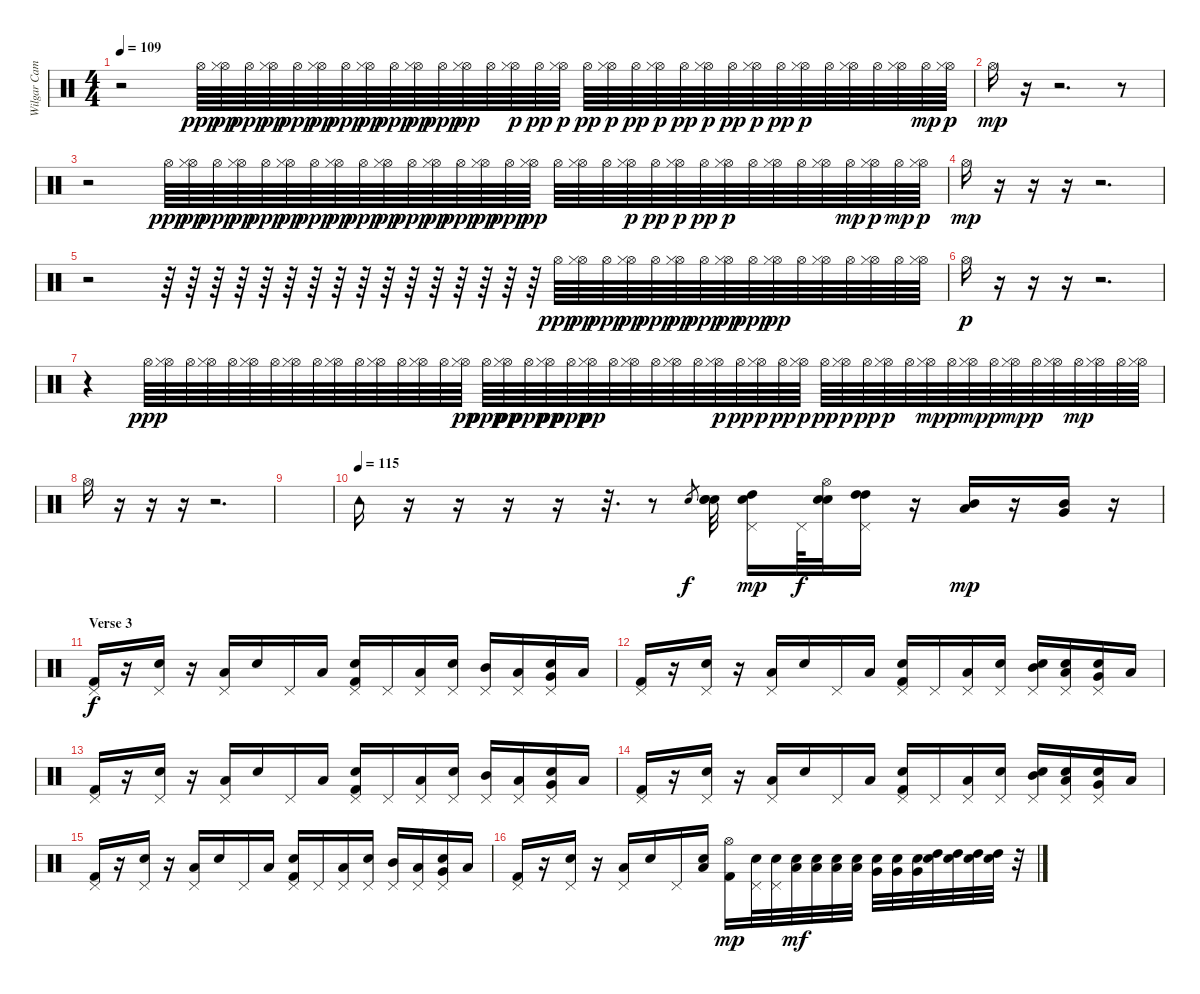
\track ("Wilgar Campbell" "Wilgar Cam") {instrument percussion}
\staff {score}
\articulation defaults
\ts (4 4)
\tempo 109
\clef neutral
\ks c
r.2{dy mf} "Hi-Hat (open)".64{dy ppp} ("Hi-Hat (open)" "Hi-Hat (closed)").64{dy pp} "Hi-Hat (open)".64{dy ppp} ("Hi-Hat (open)" "Hi-Hat (closed)").64{dy pp} "Hi-Hat (open)".64{dy ppp} ("Hi-Hat (open)" "Hi-Hat (closed)").64{dy pp} "Hi-Hat (open)".64{dy ppp} ("Hi-Hat (open)" "Hi-Hat (closed)").64{dy pp} "Hi-Hat (open)".64{dy ppp} ("Hi-Hat (open)" "Hi-Hat (closed)").64{dy pp} "Hi-Hat (open)".64{dy ppp} ("Hi-Hat (open)" "Hi-Hat (closed)").64{dy pp} "Hi-Hat (open)".64 ("Hi-Hat (open)" "Hi-Hat (closed)").64{dy p} "Hi-Hat (open)".64{dy pp} ("Hi-Hat (open)" "Hi-Hat (closed)").64{dy p} "Hi-Hat (open)".64{dy pp} ("Hi-Hat (open)" "Hi-Hat (closed)").64{dy p} "Hi-Hat (open)".64{dy pp} ("Hi-Hat (open)" "Hi-Hat (closed)").64{dy p} "Hi-Hat (open)".64{dy pp} ("Hi-Hat (open)" "Hi-Hat (closed)").64{dy p} "Hi-Hat (open)".64{dy pp} ("Hi-Hat (open)" "Hi-Hat (closed)").64{dy p} "Hi-Hat (open)".64{dy pp} ("Hi-Hat (open)" "Hi-Hat (closed)").64{dy p} "Hi-Hat (open)".64 ("Hi-Hat (open)" "Hi-Hat (closed)").64 "Hi-Hat (open)".64 ("Hi-Hat (open)" "Hi-Hat (closed)").64 "Hi-Hat (open)".64{dy mp} ("Hi-Hat (open)" "Hi-Hat (closed)").64{dy p} |
"Hi-Hat (open)".16{dy mp} r.16 r.2{d} r.8 |
r.2 "Hi-Hat (open)".64{dy ppp} ("Hi-Hat (open)" "Hi-Hat (closed)").64{dy pp} "Hi-Hat (open)".64{dy ppp} ("Hi-Hat (open)" "Hi-Hat (closed)").64{dy pp} "Hi-Hat (open)".64{dy ppp} ("Hi-Hat (open)" "Hi-Hat (closed)").64{dy pp} "Hi-Hat (open)".64{dy ppp} ("Hi-Hat (open)" "Hi-Hat (closed)").64{dy pp} "Hi-Hat (open)".64{dy ppp} ("Hi-Hat (open)" "Hi-Hat (closed)").64{dy pp} "Hi-Hat (open)".64{dy ppp} ("Hi-Hat (open)" "Hi-Hat (closed)").64{dy pp} "Hi-Hat (open)".64{dy ppp} ("Hi-Hat (open)" "Hi-Hat (closed)").64{dy pp} "Hi-Hat (open)".64{dy ppp} ("Hi-Hat (open)" "Hi-Hat (closed)").64{dy pp} "Hi-Hat (open)".64 ("Hi-Hat (open)" "Hi-Hat (closed)").64 "Hi-Hat (open)".64 ("Hi-Hat (open)" "Hi-Hat (closed)").64{dy p} "Hi-Hat (open)".64{dy pp} ("Hi-Hat (open)" "Hi-Hat (closed)").64{dy p} "Hi-Hat (open)".64{dy pp} ("Hi-Hat (open)" "Hi-Hat (closed)").64{dy p} "Hi-Hat (open)".64 ("Hi-Hat (open)" "Hi-Hat (closed)").64 "Hi-Hat (open)".64 ("Hi-Hat (open)" "Hi-Hat (closed)").64 "Hi-Hat (open)".64{dy mp} ("Hi-Hat (open)" "Hi-Hat (closed)").64{dy p} "Hi-Hat (open)".64{dy mp} ("Hi-Hat (open)" "Hi-Hat (closed)").64{dy p} |
"Hi-Hat (open)".16{dy mp} r.16 r.16 r.16 r.2{d} |
r.2 r.64 r.64 r.64 r.64 r.64 r.64 r.64 r.64 r.64 r.64 r.64 r.64 r.64 r.64 r.64 r.64 "Hi-Hat (open)".64{dy ppp} ("Hi-Hat (open)" "Hi-Hat (closed)").64{dy pp} "Hi-Hat (open)".64{dy ppp} ("Hi-Hat (open)" "Hi-Hat (closed)").64{dy pp} "Hi-Hat (open)".64{dy ppp} ("Hi-Hat (open)" "Hi-Hat (closed)").64{dy pp} "Hi-Hat (open)".64{dy ppp} ("Hi-Hat (open)" "Hi-Hat (closed)").64{dy pp} "Hi-Hat (open)".64{dy ppp} ("Hi-Hat (open)" "Hi-Hat (closed)").64{dy pp} "Hi-Hat (open)".64 ("Hi-Hat (open)" "Hi-Hat (closed)").64 "Hi-Hat (open)".64 ("Hi-Hat (open)" "Hi-Hat (closed)").64 "Hi-Hat (open)".64 ("Hi-Hat (open)" "Hi-Hat (closed)").64 |
"Hi-Hat (open)".16{dy p} r.16 r.16 r.16 r.2{d} |
r.4 "Hi-Hat (open)".64{dy ppp} ("Hi-Hat (open)" "Hi-Hat (closed)").64 "Hi-Hat (open)".64 ("Hi-Hat (open)" "Hi-Hat (closed)").64 "Hi-Hat (open)".64 ("Hi-Hat (open)" "Hi-Hat (closed)").64 "Hi-Hat (open)".64 ("Hi-Hat (open)" "Hi-Hat (closed)").64 "Hi-Hat (open)".64 ("Hi-Hat (open)" "Hi-Hat (closed)").64 "Hi-Hat (open)".64 ("Hi-Hat (open)" "Hi-Hat (closed)").64 "Hi-Hat (open)".64 ("Hi-Hat (open)" "Hi-Hat (closed)").64 "Hi-Hat (open)".64 ("Hi-Hat (open)" "Hi-Hat (closed)").64{dy pp} "Hi-Hat (open)".64{dy ppp} ("Hi-Hat (open)" "Hi-Hat (closed)").64{dy pp} "Hi-Hat (open)".64{dy ppp} ("Hi-Hat (open)" "Hi-Hat (closed)").64{dy pp} "Hi-Hat (open)".64{dy ppp} ("Hi-Hat (open)" "Hi-Hat (closed)").64{dy pp} "Hi-Hat (open)".64 ("Hi-Hat (open)" "Hi-Hat (closed)").64 "Hi-Hat (open)".64 ("Hi-Hat (open)" "Hi-Hat (closed)").64 "Hi-Hat (open)".64 ("Hi-Hat (open)" "Hi-Hat (closed)").64{dy p} "Hi-Hat (open)".64{dy pp} ("Hi-Hat (open)" "Hi-Hat (closed)").64{dy p} "Hi-Hat (open)".64{dy pp} ("Hi-Hat (open)" "Hi-Hat (closed)").64{dy p} "Hi-Hat (open)".64{dy pp} ("Hi-Hat (open)" "Hi-Hat (closed)").64{dy p} "Hi-Hat (open)".64{dy pp} ("Hi-Hat (open)" "Hi-Hat (closed)").64{dy p} "Hi-Hat (open)".64 ("Hi-Hat (open)" "Hi-Hat (closed)").64{dy mp} "Hi-Hat (open)".64{dy p} ("Hi-Hat (open)" "Hi-Hat (closed)").64{dy mp} "Hi-Hat (open)".64{dy p} ("Hi-Hat (open)" "Hi-Hat (closed)").64{dy mp} "Hi-Hat (open)".64{dy p} ("Hi-Hat (open)" "Hi-Hat (closed)").64 "Hi-Hat (open)".64{dy mp} ("Hi-Hat (open)" "Hi-Hat (closed)").64 "Hi-Hat (open)".64 ("Hi-Hat (open)" "Hi-Hat (closed)").64 |
"Hi-Hat (open)".16 r.16 r.16 r.16 r.2{d} |
|
\tempo (115)
"Tambourine (hit)".16 r.16 r.16 r.16 r.16 r.32{d} r.8 "Snare (hit) 2".8{gr dy f} ("Snare (hit) 2" "Snare (hit) 2" "Snare (hit) 2").32 ("Snare (hit) 2" "High Tom (hit)" "Pedal Hi-Hat (hit)").16{dy mp} "Pedal Hi-Hat (hit)".64{dy f} ("Snare (hit) 2" "Snare (hit) 2" "Hi-Hat (open)").32 ("High Tom (hit)" "High Tom (hit)" "Pedal Hi-Hat (hit)").16 r.16 ("Low Tom (hit)" "Mid Tom (hit)").16{dy mp} r.16 ("Very Low Tom (hit)" "Mid Tom (hit)").16 r.16 |
\section ("" "Verse 3")
("Pedal Hi-Hat (hit)" "Kick (hit) 2").16{dy f} r.16 ("Snare (hit) 2" "Pedal Hi-Hat (hit)").16 r.16 ("Low Tom (hit)" "Pedal Hi-Hat (hit)").16 "Snare (hit) 2".16 "Pedal Hi-Hat (hit)".16 "Low Tom (hit)".16 ("Snare (hit) 2" "Pedal Hi-Hat (hit)" "Kick (hit) 2").16 "Pedal Hi-Hat (hit)".16 ("Low Tom (hit)" "Pedal Hi-Hat (hit)").16 ("Snare (hit) 2" "Pedal Hi-Hat (hit)").16 ("Mid Tom (hit)" "Pedal Hi-Hat (hit)").16 ("Low Tom (hit)" "Pedal Hi-Hat (hit)").16 ("Very Low Tom (hit)" "Snare (hit) 2" "Pedal Hi-Hat (hit)").16 "Low Tom (hit)".16 |
("Pedal Hi-Hat (hit)" "Kick (hit) 2").16 r.16 ("Snare (hit) 2" "Pedal Hi-Hat (hit)").16 r.16 ("Low Tom (hit)" "Pedal Hi-Hat (hit)").16 "Snare (hit) 2".16 "Pedal Hi-Hat (hit)".16 "Low Tom (hit)".16 ("Snare (hit) 2" "Pedal Hi-Hat (hit)" "Kick (hit) 2").16 "Pedal Hi-Hat (hit)".16 ("Low Tom (hit)" "Pedal Hi-Hat (hit)").16 ("Snare (hit) 2" "Pedal Hi-Hat (hit)").16 ("Mid Tom (hit)" "Electric Snare (hit)" "Pedal Hi-Hat (hit)").16 ("Low Tom (hit)" "Electric Snare (hit)" "Pedal Hi-Hat (hit)").16 ("Very Low Tom (hit)" "Snare (hit) 2" "Pedal Hi-Hat (hit)").16 "Low Tom (hit)".16 |
("Pedal Hi-Hat (hit)" "Kick (hit) 2").16 r.16 ("Snare (hit) 2" "Pedal Hi-Hat (hit)").16 r.16 ("Low Tom (hit)" "Pedal Hi-Hat (hit)").16 "Snare (hit) 2".16 "Pedal Hi-Hat (hit)".16 "Low Tom (hit)".16 ("Snare (hit) 2" "Pedal Hi-Hat (hit)" "Kick (hit) 2").16 "Pedal Hi-Hat (hit)".16 ("Low Tom (hit)" "Pedal Hi-Hat (hit)").16 ("Snare (hit) 2" "Pedal Hi-Hat (hit)").16 ("Mid Tom (hit)" "Pedal Hi-Hat (hit)").16 ("Low Tom (hit)" "Pedal Hi-Hat (hit)").16 ("Very Low Tom (hit)" "Snare (hit) 2" "Pedal Hi-Hat (hit)").16 "Low Tom (hit)".16 |
("Pedal Hi-Hat (hit)" "Kick (hit) 2").16 r.16 ("Snare (hit) 2" "Pedal Hi-Hat (hit)").16 r.16 ("Low Tom (hit)" "Pedal Hi-Hat (hit)").16 "Snare (hit) 2".16 "Pedal Hi-Hat (hit)".16 "Low Tom (hit)".16 ("Snare (hit) 2" "Pedal Hi-Hat (hit)" "Kick (hit) 2").16 "Pedal Hi-Hat (hit)".16 ("Low Tom (hit)" "Pedal Hi-Hat (hit)").16 ("Snare (hit) 2" "Pedal Hi-Hat (hit)").16 ("Mid Tom (hit)" "Electric Snare (hit)" "Pedal Hi-Hat (hit)").16 ("Low Tom (hit)" "Electric Snare (hit)" "Pedal Hi-Hat (hit)").16 ("Very Low Tom (hit)" "Snare (hit) 2" "Pedal Hi-Hat (hit)").16 "Low Tom (hit)".16 |
("Pedal Hi-Hat (hit)" "Kick (hit) 2").16 r.16 ("Snare (hit) 2" "Pedal Hi-Hat (hit)").16 r.16 ("Low Tom (hit)" "Pedal Hi-Hat (hit)").16 "Snare (hit) 2".16 "Pedal Hi-Hat (hit)".16 "Low Tom (hit)".16 ("Snare (hit) 2" "Pedal Hi-Hat (hit)" "Kick (hit) 2").16 "Pedal Hi-Hat (hit)".16 ("Low Tom (hit)" "Pedal Hi-Hat (hit)").16 ("Snare (hit) 2" "Pedal Hi-Hat (hit)").16 ("Mid Tom (hit)" "Pedal Hi-Hat (hit)").16 ("Low Tom (hit)" "Pedal Hi-Hat (hit)").16 ("Very Low Tom (hit)" "Snare (hit) 2" "Pedal Hi-Hat (hit)").16 "Low Tom (hit)".16 |
("Pedal Hi-Hat (hit)" "Kick (hit) 2").16 r.16 ("Snare (hit) 2" "Pedal Hi-Hat (hit)").16 r.16 ("Low Tom (hit)" "Pedal Hi-Hat (hit)").16 "Snare (hit) 2".16 "Pedal Hi-Hat (hit)".16 ("Low Tom (hit)" "Snare (hit) 2").16 ("Hi-Hat (open)" "Kick (hit) 2").16{dy mp} ("Electric Snare (hit)" "Pedal Hi-Hat (hit)").32 ("Electric Snare (hit)" "Pedal Hi-Hat (hit)").32 ("Snare (hit) 2" "Low Tom (hit)").32{dy mf} ("Snare (hit) 2" "Low Tom (hit)").32 ("Snare (hit) 2" "Low Tom (hit)").32 ("Snare (hit) 2" "Low Tom (hit)").32 ("Electric Snare (hit)" "Very Low Tom (hit)").32 ("Electric Snare (hit)" "Very Low Tom (hit)").32 ("Electric Snare (hit)" "Very Low Tom (hit)").32 ("Snare (hit) 2" "High Tom (hit)").32 ("Snare (hit) 2" "High Tom (hit)").32 ("Snare (hit) 2" "High Tom (hit)").32 ("Snare (hit) 2" "High Tom (hit)").32 r.32
